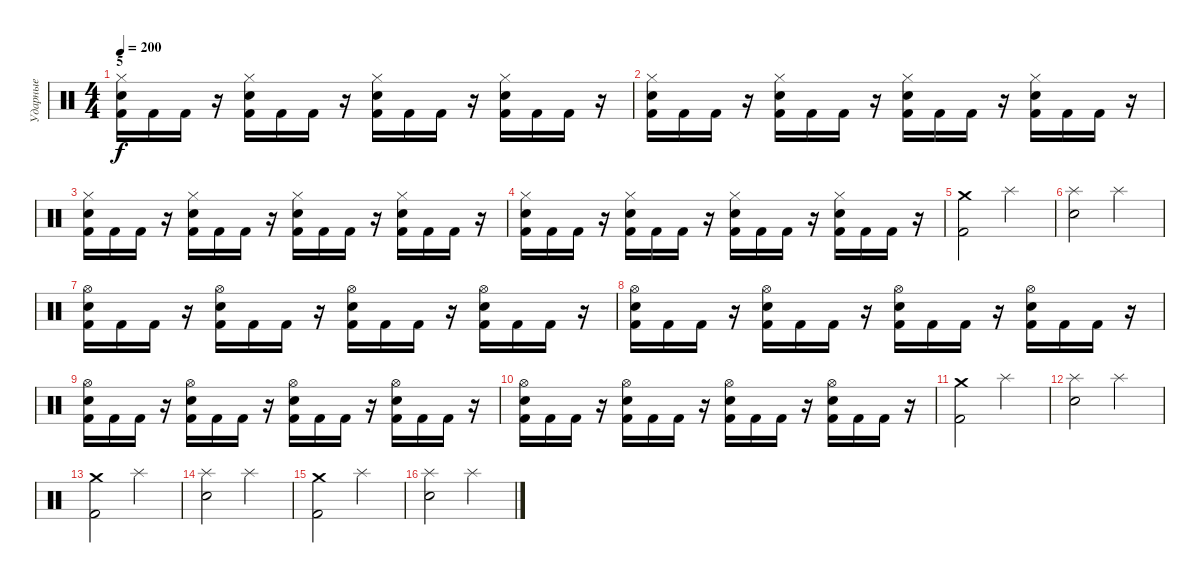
\track ("Ударные" "Ударные") {instrument percussion}
\staff {score}
\articulation defaults
\ts (4 4)
\section ("" "5")
\tempo 200
\clef neutral
\ks c
("Hi-Hat (closed)" "Electric Snare (hit)" "Kick (hit) 2").16{dy f} "Kick (hit) 2".16 "Kick (hit) 2".16 r.16 ("Hi-Hat (closed)" "Electric Snare (hit)" "Kick (hit) 2").16 "Kick (hit) 2".16 "Kick (hit) 2".16 r.16 ("Hi-Hat (closed)" "Electric Snare (hit)" "Kick (hit) 2").16 "Kick (hit) 2".16 "Kick (hit) 2".16 r.16 ("Hi-Hat (closed)" "Electric Snare (hit)" "Kick (hit) 2").16 "Kick (hit) 2".16 "Kick (hit) 2".16 r.16 |
("Hi-Hat (closed)" "Electric Snare (hit)" "Kick (hit) 2").16 "Kick (hit) 2".16 "Kick (hit) 2".16 r.16 ("Hi-Hat (closed)" "Electric Snare (hit)" "Kick (hit) 2").16 "Kick (hit) 2".16 "Kick (hit) 2".16 r.16 ("Hi-Hat (closed)" "Electric Snare (hit)" "Kick (hit) 2").16 "Kick (hit) 2".16 "Kick (hit) 2".16 r.16 ("Hi-Hat (closed)" "Electric Snare (hit)" "Kick (hit) 2").16 "Kick (hit) 2".16 "Kick (hit) 2".16 r.16 |
("Hi-Hat (closed)" "Electric Snare (hit)" "Kick (hit) 2").16 "Kick (hit) 2".16 "Kick (hit) 2".16 r.16 ("Hi-Hat (closed)" "Electric Snare (hit)" "Kick (hit) 2").16 "Kick (hit) 2".16 "Kick (hit) 2".16 r.16 ("Hi-Hat (closed)" "Electric Snare (hit)" "Kick (hit) 2").16 "Kick (hit) 2".16 "Kick (hit) 2".16 r.16 ("Hi-Hat (closed)" "Electric Snare (hit)" "Kick (hit) 2").16 "Kick (hit) 2".16 "Kick (hit) 2".16 r.16 |
("Hi-Hat (closed)" "Electric Snare (hit)" "Kick (hit) 2").16 "Kick (hit) 2".16 "Kick (hit) 2".16 r.16 ("Hi-Hat (closed)" "Electric Snare (hit)" "Kick (hit) 2").16 "Kick (hit) 2".16 "Kick (hit) 2".16 r.16 ("Hi-Hat (closed)" "Electric Snare (hit)" "Kick (hit) 2").16 "Kick (hit) 2".16 "Kick (hit) 2".16 r.16 ("Hi-Hat (closed)" "Electric Snare (hit)" "Kick (hit) 2").16 "Kick (hit) 2".16 "Kick (hit) 2".16 r.16 |
("Crash medium (hit)" "Kick (hit) 2").2 "Splash (hit)".2 |
("Splash (hit)" "Electric Snare (hit)").2 "Splash (hit)".2 |
("Hi-Hat (open)" "Electric Snare (hit)" "Kick (hit) 2").16 "Kick (hit) 2".16 "Kick (hit) 2".16 r.16 ("Hi-Hat (open)" "Electric Snare (hit)" "Kick (hit) 2").16 "Kick (hit) 2".16 "Kick (hit) 2".16 r.16 ("Hi-Hat (open)" "Electric Snare (hit)" "Kick (hit) 2").16 "Kick (hit) 2".16 "Kick (hit) 2".16 r.16 ("Hi-Hat (open)" "Electric Snare (hit)" "Kick (hit) 2").16 "Kick (hit) 2".16 "Kick (hit) 2".16 r.16 |
("Hi-Hat (open)" "Electric Snare (hit)" "Kick (hit) 2").16 "Kick (hit) 2".16 "Kick (hit) 2".16 r.16 ("Hi-Hat (open)" "Electric Snare (hit)" "Kick (hit) 2").16 "Kick (hit) 2".16 "Kick (hit) 2".16 r.16 ("Hi-Hat (open)" "Electric Snare (hit)" "Kick (hit) 2").16 "Kick (hit) 2".16 "Kick (hit) 2".16 r.16 ("Hi-Hat (open)" "Electric Snare (hit)" "Kick (hit) 2").16 "Kick (hit) 2".16 "Kick (hit) 2".16 r.16 |
("Hi-Hat (open)" "Electric Snare (hit)" "Kick (hit) 2").16 "Kick (hit) 2".16 "Kick (hit) 2".16 r.16 ("Hi-Hat (open)" "Electric Snare (hit)" "Kick (hit) 2").16 "Kick (hit) 2".16 "Kick (hit) 2".16 r.16 ("Hi-Hat (open)" "Electric Snare (hit)" "Kick (hit) 2").16 "Kick (hit) 2".16 "Kick (hit) 2".16 r.16 ("Hi-Hat (open)" "Electric Snare (hit)" "Kick (hit) 2").16 "Kick (hit) 2".16 "Kick (hit) 2".16 r.16 |
("Hi-Hat (open)" "Electric Snare (hit)" "Kick (hit) 2").16 "Kick (hit) 2".16 "Kick (hit) 2".16 r.16 ("Hi-Hat (open)" "Electric Snare (hit)" "Kick (hit) 2").16 "Kick (hit) 2".16 "Kick (hit) 2".16 r.16 ("Hi-Hat (open)" "Electric Snare (hit)" "Kick (hit) 2").16 "Kick (hit) 2".16 "Kick (hit) 2".16 r.16 ("Hi-Hat (open)" "Electric Snare (hit)" "Kick (hit) 2").16 "Kick (hit) 2".16 "Kick (hit) 2".16 r.16 |
("Crash medium (hit)" "Kick (hit) 2").2 "Splash (hit)".2 |
("Splash (hit)" "Electric Snare (hit)").2 "Splash (hit)".2 |
("Crash medium (hit)" "Kick (hit) 2").2 "Splash (hit)".2 |
("Splash (hit)" "Electric Snare (hit)").2 "Splash (hit)".2 |
("Crash medium (hit)" "Kick (hit) 2").2 "Splash (hit)".2 |
("Splash (hit)" "Electric Snare (hit)").2 "Splash (hit)".2
